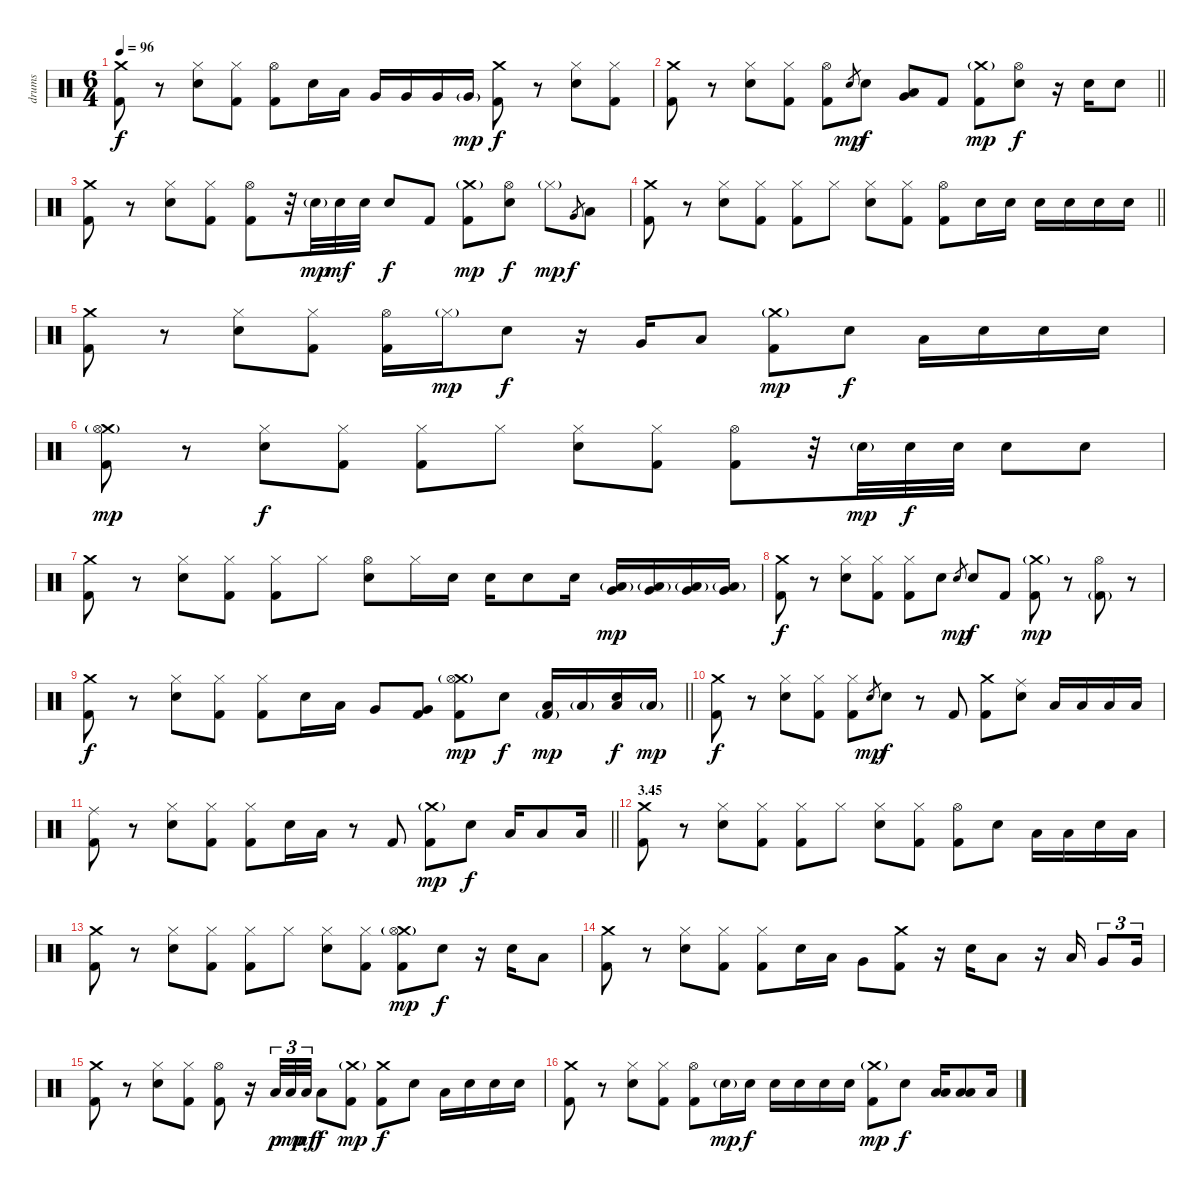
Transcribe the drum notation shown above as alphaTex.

\track ("drums" "drums") {instrument percussion}
\staff {score}
\articulation defaults
\ts (6 4)
\tempo 96
\clef neutral
\ks c
("Crash medium (hit)" "Kick (hit) 2").8{dy f} r.8 ("Hi-Hat (closed)" "Electric Snare (hit)").8 ("Hi-Hat (closed)" "Kick (hit) 2").8 ("Hi-Hat (open)" "Kick (hit) 2").8 "Electric Snare (hit)".16 "Low Tom (hit)".16 "Very Low Tom (hit)".16 "Very Low Tom (hit)".16 "Very Low Tom (hit)".16 "Very Low Tom (hit)"{g}.16{dy mp} ("Crash medium (hit)" "Kick (hit) 2").8{dy f} r.8 ("Hi-Hat (closed)" "Electric Snare (hit)").8 ("Hi-Hat (closed)" "Kick (hit) 2").8 |
\barLineRight lightlight
("Crash medium (hit)" "Kick (hit) 2").8 r.8 ("Hi-Hat (closed)" "Electric Snare (hit)").8 ("Hi-Hat (closed)" "Kick (hit) 2").8 ("Hi-Hat (open)" "Kick (hit) 2").8 "Electric Snare (hit)".8{gr dy mp} "Electric Snare (hit)".8{dy f} ("Low Tom (hit)" "Very Low Tom (hit)").8 "Kick (hit) 2".8 ("Crash medium (hit)"{g} "Kick (hit) 2").8{dy mp} ("Hi-Hat (open)" "Electric Snare (hit)").8{dy f} r.16 "Electric Snare (hit)".16 "Electric Snare (hit)".8 |
("Crash medium (hit)" "Kick (hit) 2").8 r.8 ("Hi-Hat (closed)" "Electric Snare (hit)").8 ("Hi-Hat (closed)" "Kick (hit) 2").8 ("Hi-Hat (open)" "Kick (hit) 2").8 r.32 "Electric Snare (hit)"{g}.32{dy mp} "Electric Snare (hit)".32{dy mf} "Electric Snare (hit)".32 "Electric Snare (hit)".8{dy f} "Kick (hit) 2".8 ("Crash medium (hit)"{g} "Kick (hit) 2").8{dy mp} ("Hi-Hat (open)" "Electric Snare (hit)").8{dy f} "Hi-Hat (closed)"{g}.8{dy mp} "Very Low Tom (hit)".8{gr dy f} "Low Tom (hit)".8 |
\barLineRight lightlight
("Crash medium (hit)" "Kick (hit) 2").8 r.8 ("Hi-Hat (closed)" "Electric Snare (hit)").8 ("Hi-Hat (closed)" "Kick (hit) 2").8 ("Hi-Hat (closed)" "Kick (hit) 2").8 "Hi-Hat (closed)".8 ("Hi-Hat (closed)" "Electric Snare (hit)").8 ("Hi-Hat (closed)" "Kick (hit) 2").8 ("Hi-Hat (open)" "Kick (hit) 2").8 "Electric Snare (hit)".16 "Electric Snare (hit)".16 "Electric Snare (hit)".16 "Electric Snare (hit)".16 "Electric Snare (hit)".16 "Electric Snare (hit)".16 |
("Crash medium (hit)" "Kick (hit) 2").8 r.8 ("Hi-Hat (closed)" "Electric Snare (hit)").8 ("Hi-Hat (closed)" "Kick (hit) 2").8 ("Hi-Hat (open)" "Kick (hit) 2").16 "Hi-Hat (closed)"{g}.16{dy mp} "Electric Snare (hit)".8{dy f} r.16 "Very Low Tom (hit)".16 "Low Tom (hit)".8 ("Crash medium (hit)"{g} "Kick (hit) 2").8{dy mp} "Electric Snare (hit)".8{dy f} "Low Floor Tom (hit)".16 "Electric Snare (hit)".16 "Electric Snare (hit)".16 "Electric Snare (hit)".16 |
("Crash medium (hit)"{g} "Hi-Hat (open)" "Kick (hit) 2").8{dy mp} r.8 ("Hi-Hat (closed)" "Electric Snare (hit)").8{dy f} ("Hi-Hat (closed)" "Kick (hit) 2").8 ("Hi-Hat (closed)" "Kick (hit) 2").8 "Hi-Hat (closed)".8 ("Hi-Hat (closed)" "Electric Snare (hit)").8 ("Hi-Hat (closed)" "Kick (hit) 2").8 ("Hi-Hat (open)" "Kick (hit) 2").8 r.32 "Electric Snare (hit)"{g}.32{dy mp} "Electric Snare (hit)".32{dy f} "Electric Snare (hit)".32 "Electric Snare (hit)".8 "Electric Snare (hit)".8 |
("Crash medium (hit)" "Kick (hit) 2").8 r.8 ("Hi-Hat (closed)" "Electric Snare (hit)").8 ("Hi-Hat (closed)" "Kick (hit) 2").8 ("Hi-Hat (closed)" "Kick (hit) 2").8 "Hi-Hat (closed)".8 ("Hi-Hat (open)" "Electric Snare (hit)").8 "Hi-Hat (closed)".16 "Electric Snare (hit)".16 "Electric Snare (hit)".16 "Electric Snare (hit)".8 "Electric Snare (hit)".16 ("Low Floor Tom (hit)"{g} "Very Low Tom (hit)").16{dy mp} ("Low Floor Tom (hit)"{g} "Very Low Tom (hit)").16 ("Low Floor Tom (hit)"{g} "Very Low Tom (hit)").16 ("Low Floor Tom (hit)"{g} "Very Low Tom (hit)").16 |
("Crash medium (hit)" "Kick (hit) 2").8{dy f} r.8 ("Hi-Hat (closed)" "Electric Snare (hit)").8 ("Hi-Hat (closed)" "Kick (hit) 2").8 ("Hi-Hat (closed)" "Kick (hit) 2").8 "Electric Snare (hit)".8 "Electric Snare (hit)".8{gr dy mp} "Electric Snare (hit)".8{dy f} "Kick (hit) 2".8 ("Crash medium (hit)"{g} "Kick (hit) 2").8{dy mp} r.8 ("Hi-Hat (open)" "Kick (hit) 2"{g}).8 r.8 |
\barLineRight lightlight
("Crash medium (hit)" "Kick (hit) 2").8{dy f} r.8 ("Hi-Hat (closed)" "Electric Snare (hit)").8 ("Hi-Hat (closed)" "Kick (hit) 2").8 ("Hi-Hat (closed)" "Kick (hit) 2").8 "Electric Snare (hit)".16 "Low Tom (hit)".16 "Very Low Tom (hit)".8 ("Very Low Tom (hit)" "Kick (hit) 2").8 ("Crash medium (hit)"{g} "Hi-Hat (open)"{g} "Kick (hit) 2").8{dy mp} "Electric Snare (hit)".8{dy f} ("Low Tom (hit)" "Kick (hit) 2"{g}).16{dy mp} "Low Tom (hit)"{g}.16 ("Low Tom (hit)" "Electric Snare (hit)").16{dy f} "Low Tom (hit)"{g}.16{dy mp} |
("Crash medium (hit)" "Kick (hit) 2").8{dy f} r.8 ("Hi-Hat (closed)" "Electric Snare (hit)").8 ("Hi-Hat (closed)" "Kick (hit) 2").8 ("Hi-Hat (closed)" "Kick (hit) 2").8 "Electric Snare (hit)".8{gr dy mp} "Electric Snare (hit)".8{dy f} r.8 "Kick (hit) 2".8 ("Crash medium (hit)" "Kick (hit) 2").8 ("Ride (middle)" "Electric Snare (hit)").8 "Low Tom (hit)".16 "Low Tom (hit)".16 "Low Tom (hit)".16 "Low Tom (hit)".16 |
\barLineRight lightlight
("Ride (middle)" "Kick (hit) 2").8 r.8 ("Hi-Hat (closed)" "Electric Snare (hit)").8 ("Hi-Hat (closed)" "Kick (hit) 2").8 ("Hi-Hat (closed)" "Kick (hit) 2").8 "Electric Snare (hit)".16 "Low Tom (hit)".16 r.8 "Kick (hit) 2".8 ("Crash medium (hit)"{g} "Kick (hit) 2").8{dy mp} "Electric Snare (hit)".8{dy f} "Low Tom (hit)".16 "Low Tom (hit)".8 "Low Tom (hit)".16 |
\section ("" "3.45")
("Crash medium (hit)" "Kick (hit) 2").8 r.8 ("Hi-Hat (closed)" "Electric Snare (hit)").8 ("Hi-Hat (closed)" "Kick (hit) 2").8 ("Hi-Hat (closed)" "Kick (hit) 2").8 "Hi-Hat (closed)".8 ("Hi-Hat (closed)" "Electric Snare (hit)").8 ("Hi-Hat (closed)" "Kick (hit) 2").8 ("Hi-Hat (open)" "Kick (hit) 2").8 "Electric Snare (hit)".8 "Low Tom (hit)".16 "Low Tom (hit)".16 "Electric Snare (hit)".16 "Low Tom (hit)".16 |
("Crash medium (hit)" "Kick (hit) 2").8 r.8 ("Hi-Hat (closed)" "Electric Snare (hit)").8 ("Hi-Hat (closed)" "Kick (hit) 2").8 ("Hi-Hat (closed)" "Kick (hit) 2").8 "Hi-Hat (closed)".8 ("Hi-Hat (closed)" "Electric Snare (hit)").8 ("Hi-Hat (closed)" "Kick (hit) 2").8 ("Crash medium (hit)"{g} "Hi-Hat (open)" "Kick (hit) 2").8{dy mp} "Electric Snare (hit)".8{dy f} r.16 "Electric Snare (hit)".16 "Low Tom (hit)".8 |
("Crash medium (hit)" "Kick (hit) 2").8 r.8 ("Hi-Hat (closed)" "Electric Snare (hit)").8 ("Hi-Hat (closed)" "Kick (hit) 2").8 ("Hi-Hat (closed)" "Kick (hit) 2").8 "Electric Snare (hit)".16 "Low Tom (hit)".16 "Very Low Tom (hit)".8 ("Crash medium (hit)" "Kick (hit) 2").8 r.16 "Electric Snare (hit)".16 "Low Tom (hit)".8 r.16 "Low Floor Tom (hit)".16 "Very Low Tom (hit)".8{tu (3 2)} "Very Low Tom (hit)".16{tu (3 2)} |
("Crash medium (hit)" "Kick (hit) 2").8 r.8 ("Hi-Hat (closed)" "Electric Snare (hit)").8 ("Hi-Hat (closed)" "Kick (hit) 2").8 ("Hi-Hat (open)" "Kick (hit) 2").8 r.16 "Low Tom (hit)".32{tu (3 2) dy p} "Low Tom (hit)".32{tu (3 2) dy mp} "Low Tom (hit)".32{tu (3 2) dy mf} "Low Tom (hit)".8{dy f} ("Crash medium (hit)"{g} "Kick (hit) 2").8{dy mp} ("Crash medium (hit)" "Kick (hit) 2").8{dy f} "Electric Snare (hit)".8 "Low Floor Tom (hit)".16 "Electric Snare (hit)".16 "Electric Snare (hit)".16 "Electric Snare (hit)".16 |
("Crash medium (hit)" "Kick (hit) 2").8 r.8 ("Hi-Hat (closed)" "Electric Snare (hit)").8 ("Hi-Hat (closed)" "Kick (hit) 2").8 ("Hi-Hat (open)" "Kick (hit) 2").8 "Electric Snare (hit)"{g}.16{dy mp} "Electric Snare (hit)".16{dy f} "Electric Snare (hit)".16 "Electric Snare (hit)".16 "Electric Snare (hit)".16 "Electric Snare (hit)".16 ("Crash medium (hit)"{g} "Kick (hit) 2").8{dy mp} "Electric Snare (hit)".8{dy f} ("Low Tom (hit)" "Low Floor Tom (hit)").16 ("Low Tom (hit)" "Low Floor Tom (hit)").8 "Low Tom (hit)".16
